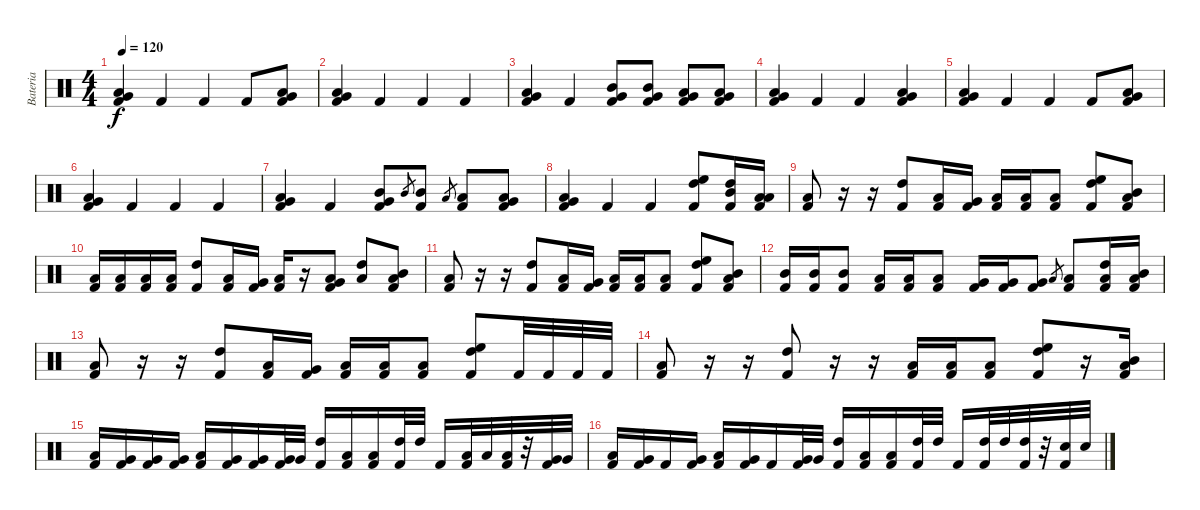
\track ("Bateria" "Bateria") {instrument percussion}
\staff {score}
\articulation defaults
\ts (4 4)
\tempo 120
\clef neutral
\ks c
("Very Low Tom (hit)" "Low Floor Tom (hit)" "Kick (hit) 2").4{dy f} "Kick (hit) 2".4 "Kick (hit) 2".4 "Kick (hit) 2".8 ("Very Low Tom (hit)" "Low Floor Tom (hit)" "Kick (hit) 2").8 |
("Very Low Tom (hit)" "Low Floor Tom (hit)" "Kick (hit) 2").4 "Kick (hit) 2".4 "Kick (hit) 2".4 "Kick (hit) 2".4 |
("Very Low Tom (hit)" "Low Floor Tom (hit)" "Kick (hit) 2").4 "Kick (hit) 2".4 ("Mid Tom (hit)" "Very Low Tom (hit)" "Kick (hit) 2").8 ("Mid Tom (hit)" "Very Low Tom (hit)" "Kick (hit) 2").8 ("Low Tom (hit)" "Very Low Tom (hit)" "Kick (hit) 2").8 ("Low Tom (hit)" "Very Low Tom (hit)" "Kick (hit) 2").8 |
("Very Low Tom (hit)" "Low Floor Tom (hit)" "Kick (hit) 2").4 "Kick (hit) 2".4 "Kick (hit) 2".4 ("Very Low Tom (hit)" "Low Floor Tom (hit)" "Kick (hit) 2").4 |
("Very Low Tom (hit)" "Low Floor Tom (hit)" "Kick (hit) 2").4 "Kick (hit) 2".4 "Kick (hit) 2".4 "Kick (hit) 2".8 ("Very Low Tom (hit)" "Low Floor Tom (hit)" "Kick (hit) 2").8 |
("Very Low Tom (hit)" "Low Floor Tom (hit)" "Kick (hit) 2").4 "Kick (hit) 2".4 "Kick (hit) 2".4 "Kick (hit) 2".4 |
("Very Low Tom (hit)" "Low Floor Tom (hit)" "Kick (hit) 2").4 "Kick (hit) 2".4 ("Mid Tom (hit)" "Very Low Tom (hit)" "Kick (hit) 2").8 "Mid Tom (hit)".8{gr} ("Mid Tom (hit)" "Kick (hit) 2").8 "Low Tom (hit)".8{gr} ("Low Tom (hit)" "Kick (hit) 2").8 ("Low Tom (hit)" "Very Low Tom (hit)" "Kick (hit) 2").8 |
("Low Tom (hit)" "Very Low Tom (hit)" "Kick (hit) 2").4 "Kick (hit) 2".4 "Kick (hit) 2".4 ("High Floor Tom (hit)" "High Tom (hit)" "Kick (hit) 2").8 ("High Tom (hit)" "Mid Tom (hit)" "Kick (hit) 2").16 ("Low Tom (hit)" "Low Tom (hit)" "Kick (hit) 2").16 |
("Low Tom (hit)" "Kick (hit) 2").8 r.16 r.16 ("High Tom (hit)" "Kick (hit) 2").8 ("Low Tom (hit)" "Kick (hit) 2").16 ("Very Low Tom (hit)" "Kick (hit) 2").16 ("Low Floor Tom (hit)" "Kick (hit) 2").16 ("Low Floor Tom (hit)" "Kick (hit) 2").16 ("Low Floor Tom (hit)" "Kick (hit) 2").8 ("High Tom (hit)" "High Floor Tom (hit)" "Kick (hit) 2").8 ("Mid Tom (hit)" "Low Tom (hit)" "Kick (hit) 2").8 |
("Low Tom (hit)" "Kick (hit) 2").16 ("Low Tom (hit)" "Kick (hit) 2").16 ("Low Tom (hit)" "Kick (hit) 2").16 ("Low Tom (hit)" "Kick (hit) 2").16 ("High Tom (hit)" "Kick (hit) 2").8 ("Low Tom (hit)" "Kick (hit) 2").16 ("Very Low Tom (hit)" "Kick (hit) 2").16 ("Low Floor Tom (hit)" "Kick (hit) 2").16 r.16 ("Low Floor Tom (hit)" "Very Low Tom (hit)" "Kick (hit) 2").8 ("High Tom (hit)" "Low Tom (hit)").8 ("Mid Tom (hit)" "Low Tom (hit)" "Kick (hit) 2").8 |
("Low Tom (hit)" "Kick (hit) 2").8 r.16 r.16 ("High Tom (hit)" "Kick (hit) 2").8 ("Low Tom (hit)" "Kick (hit) 2").16 ("Very Low Tom (hit)" "Kick (hit) 2").16 ("Low Floor Tom (hit)" "Kick (hit) 2").16 ("Low Floor Tom (hit)" "Kick (hit) 2").16 ("Low Floor Tom (hit)" "Kick (hit) 2").8 ("High Tom (hit)" "High Floor Tom (hit)" "Kick (hit) 2").8 ("Mid Tom (hit)" "Low Tom (hit)" "Kick (hit) 2").8 |
("Mid Tom (hit)" "Kick (hit) 2").16 ("Mid Tom (hit)" "Kick (hit) 2").16 ("Mid Tom (hit)" "Kick (hit) 2").8 ("Low Tom (hit)" "Kick (hit) 2").16 ("Low Tom (hit)" "Kick (hit) 2").16 ("Low Tom (hit)" "Kick (hit) 2").8 ("Very Low Tom (hit)" "Kick (hit) 2").16 ("Very Low Tom (hit)" "Kick (hit) 2").16 ("Very Low Tom (hit)" "Kick (hit) 2").8 "Low Floor Tom (hit)".8{gr} ("Low Floor Tom (hit)" "Kick (hit) 2").8 ("High Tom (hit)" "Low Floor Tom (hit)" "Kick (hit) 2").16 ("Mid Tom (hit)" "Low Floor Tom (hit)" "Kick (hit) 2").16 |
("Low Tom (hit)" "Kick (hit) 2").8 r.16 r.16 ("High Tom (hit)" "Kick (hit) 2").8 ("Low Tom (hit)" "Kick (hit) 2").16 ("Very Low Tom (hit)" "Kick (hit) 2").16 ("Low Floor Tom (hit)" "Kick (hit) 2").16 ("Low Floor Tom (hit)" "Kick (hit) 2").16 ("Low Floor Tom (hit)" "Kick (hit) 2").8 ("High Tom (hit)" "High Floor Tom (hit)" "Kick (hit) 2").8 "Kick (hit) 2".32 "Kick (hit) 2".32 "Kick (hit) 2".32 "Kick (hit) 2".32 |
("Low Tom (hit)" "Kick (hit) 2").8 r.16 r.16 ("High Tom (hit)" "Kick (hit) 2").8 r.16 r.16 ("Low Floor Tom (hit)" "Kick (hit) 2").16 ("Low Floor Tom (hit)" "Kick (hit) 2").16 ("Low Floor Tom (hit)" "Kick (hit) 2").8 ("High Tom (hit)" "High Floor Tom (hit)" "Kick (hit) 2").8 r.16 ("Mid Tom (hit)" "Low Tom (hit)" "Kick (hit) 2").16 |
("Low Tom (hit)" "Kick (hit) 2").16 ("Very Low Tom (hit)" "Kick (hit) 2").16 ("Very Low Tom (hit)" "Kick (hit) 2").16 ("Very Low Tom (hit)" "Kick (hit) 2").16 ("Low Tom (hit)" "Kick (hit) 2").16 ("Very Low Tom (hit)" "Kick (hit) 2").16 ("Very Low Tom (hit)" "Kick (hit) 2").16 ("Very Low Tom (hit)" "Kick (hit) 2").32 "Very Low Tom (hit)".32 ("High Tom (hit)" "Kick (hit) 2").16 ("Low Tom (hit)" "Kick (hit) 2").16 ("Low Tom (hit)" "Kick (hit) 2").16 ("High Tom (hit)" "Kick (hit) 2").32 "High Tom (hit)".32 "Kick (hit) 2".16 ("Low Tom (hit)" "Kick (hit) 2").32 "Low Tom (hit)".32 ("Low Tom (hit)" "Kick (hit) 2").32 r.32 ("Very Low Tom (hit)" "Kick (hit) 2").32 "Very Low Tom (hit)".32 |
("Low Tom (hit)" "Kick (hit) 2").16 ("Very Low Tom (hit)" "Kick (hit) 2").16 "Kick (hit) 2".16 ("Very Low Tom (hit)" "Kick (hit) 2").16 ("Low Tom (hit)" "Kick (hit) 2").16 ("Very Low Tom (hit)" "Kick (hit) 2").16 "Kick (hit) 2".16 ("Very Low Tom (hit)" "Kick (hit) 2").32 "Very Low Tom (hit)".32 ("High Tom (hit)" "Kick (hit) 2").16 ("Low Tom (hit)" "Kick (hit) 2").16 ("Low Tom (hit)" "Kick (hit) 2").16 ("High Tom (hit)" "Kick (hit) 2").32 "High Tom (hit)".32 "Kick (hit) 2".16 ("High Tom (hit)" "Kick (hit) 2").32 "High Tom (hit)".32 ("High Tom (hit)" "Kick (hit) 2").32 r.32 ("Electric Snare (hit)" "Kick (hit) 2").32 "Electric Snare (hit)".32
